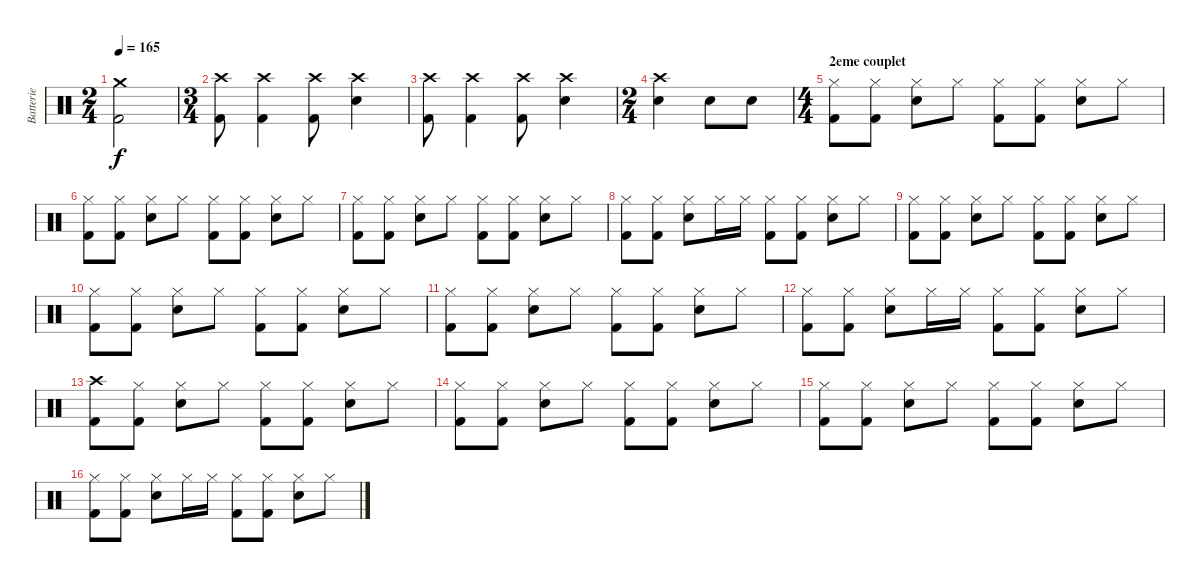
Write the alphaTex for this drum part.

\track ("Batterie" "Batterie") {instrument percussion}
\staff {score}
\articulation defaults
\ts (2 4)
\tempo 165
\clef neutral
\ks c
("Crash medium (hit)" "Kick (hit) 2").2{dy f} |
\ts (3 4)
("Crash high (hit)" "Kick (hit) 2").8 ("Crash high (hit)" "Kick (hit) 2").4 ("Crash high (hit)" "Kick (hit) 2").8 ("Crash high (hit)" "Snare (hit) 2").4 |
("Crash high (hit)" "Kick (hit) 2").8 ("Crash high (hit)" "Kick (hit) 2").4 ("Crash high (hit)" "Kick (hit) 2").8 ("Crash high (hit)" "Snare (hit) 2").4 |
\ts (2 4)
("Crash high (hit)" "Snare (hit) 2").4 "Snare (hit) 2".8 "Snare (hit) 2".8 |
\ts (4 4)
\section ("" "2eme couplet")
("Hi-Hat (closed)" "Kick (hit) 2").8{volume 11} ("Hi-Hat (closed)" "Kick (hit) 2").8 ("Hi-Hat (closed)" "Electric Snare (hit)").8 "Hi-Hat (closed)".8 ("Hi-Hat (closed)" "Kick (hit) 2").8 ("Hi-Hat (closed)" "Kick (hit) 2").8 ("Hi-Hat (closed)" "Electric Snare (hit)").8 "Hi-Hat (closed)".8 |
("Hi-Hat (closed)" "Kick (hit) 2").8 ("Hi-Hat (closed)" "Kick (hit) 2").8 ("Hi-Hat (closed)" "Electric Snare (hit)").8 "Hi-Hat (closed)".8 ("Hi-Hat (closed)" "Kick (hit) 2").8 ("Hi-Hat (closed)" "Kick (hit) 2").8 ("Hi-Hat (closed)" "Electric Snare (hit)").8 "Hi-Hat (closed)".8 |
("Hi-Hat (closed)" "Kick (hit) 2").8 ("Hi-Hat (closed)" "Kick (hit) 2").8 ("Hi-Hat (closed)" "Electric Snare (hit)").8 "Hi-Hat (closed)".8 ("Hi-Hat (closed)" "Kick (hit) 2").8 ("Hi-Hat (closed)" "Kick (hit) 2").8 ("Hi-Hat (closed)" "Electric Snare (hit)").8 "Hi-Hat (closed)".8 |
("Hi-Hat (closed)" "Kick (hit) 2").8 ("Hi-Hat (closed)" "Kick (hit) 2").8 ("Hi-Hat (closed)" "Electric Snare (hit)").8 "Hi-Hat (closed)".16 "Hi-Hat (closed)".16 ("Hi-Hat (closed)" "Kick (hit) 2").8 ("Hi-Hat (closed)" "Kick (hit) 2").8 ("Hi-Hat (closed)" "Electric Snare (hit)").8 "Hi-Hat (closed)".8 |
("Hi-Hat (closed)" "Kick (hit) 2").8 ("Hi-Hat (closed)" "Kick (hit) 2").8 ("Hi-Hat (closed)" "Electric Snare (hit)").8 "Hi-Hat (closed)".8 ("Hi-Hat (closed)" "Kick (hit) 2").8 ("Hi-Hat (closed)" "Kick (hit) 2").8 ("Hi-Hat (closed)" "Electric Snare (hit)").8 "Hi-Hat (closed)".8 |
("Hi-Hat (closed)" "Kick (hit) 2").8 ("Hi-Hat (closed)" "Kick (hit) 2").8 ("Hi-Hat (closed)" "Electric Snare (hit)").8 "Hi-Hat (closed)".8 ("Hi-Hat (closed)" "Kick (hit) 2").8 ("Hi-Hat (closed)" "Kick (hit) 2").8 ("Hi-Hat (closed)" "Electric Snare (hit)").8 "Hi-Hat (closed)".8 |
("Hi-Hat (closed)" "Kick (hit) 2").8 ("Hi-Hat (closed)" "Kick (hit) 2").8 ("Hi-Hat (closed)" "Electric Snare (hit)").8 "Hi-Hat (closed)".8 ("Hi-Hat (closed)" "Kick (hit) 2").8 ("Hi-Hat (closed)" "Kick (hit) 2").8 ("Hi-Hat (closed)" "Electric Snare (hit)").8 "Hi-Hat (closed)".8 |
("Hi-Hat (closed)" "Kick (hit) 2").8 ("Hi-Hat (closed)" "Kick (hit) 2").8 ("Hi-Hat (closed)" "Electric Snare (hit)").8 "Hi-Hat (closed)".16 "Hi-Hat (closed)".16 ("Hi-Hat (closed)" "Kick (hit) 2").8 ("Hi-Hat (closed)" "Kick (hit) 2").8 ("Hi-Hat (closed)" "Electric Snare (hit)").8 "Hi-Hat (closed)".8 |
("Crash high (hit)" "Kick (hit) 2").8 ("Hi-Hat (closed)" "Kick (hit) 2").8 ("Hi-Hat (closed)" "Electric Snare (hit)").8 "Hi-Hat (closed)".8 ("Hi-Hat (closed)" "Kick (hit) 2").8 ("Hi-Hat (closed)" "Kick (hit) 2").8 ("Hi-Hat (closed)" "Electric Snare (hit)").8 "Hi-Hat (closed)".8 |
("Hi-Hat (closed)" "Kick (hit) 2").8 ("Hi-Hat (closed)" "Kick (hit) 2").8 ("Hi-Hat (closed)" "Electric Snare (hit)").8 "Hi-Hat (closed)".8 ("Hi-Hat (closed)" "Kick (hit) 2").8 ("Hi-Hat (closed)" "Kick (hit) 2").8 ("Hi-Hat (closed)" "Electric Snare (hit)").8 "Hi-Hat (closed)".8 |
("Hi-Hat (closed)" "Kick (hit) 2").8 ("Hi-Hat (closed)" "Kick (hit) 2").8 ("Hi-Hat (closed)" "Electric Snare (hit)").8 "Hi-Hat (closed)".8 ("Hi-Hat (closed)" "Kick (hit) 2").8 ("Hi-Hat (closed)" "Kick (hit) 2").8 ("Hi-Hat (closed)" "Electric Snare (hit)").8 "Hi-Hat (closed)".8 |
("Hi-Hat (closed)" "Kick (hit) 2").8 ("Hi-Hat (closed)" "Kick (hit) 2").8 ("Hi-Hat (closed)" "Electric Snare (hit)").8 "Hi-Hat (closed)".16 "Hi-Hat (closed)".16 ("Hi-Hat (closed)" "Kick (hit) 2").8 ("Hi-Hat (closed)" "Kick (hit) 2").8 ("Hi-Hat (closed)" "Electric Snare (hit)").8 "Hi-Hat (closed)".8
